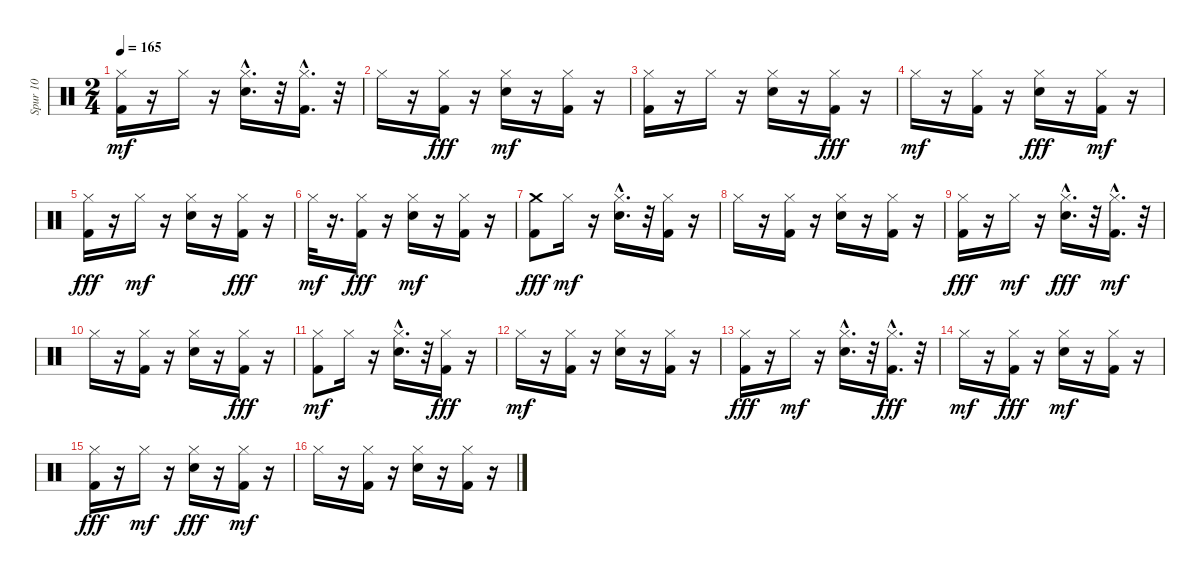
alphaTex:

\track ("Spur 10" "Spur 10") {instrument percussion}
\staff {score}
\articulation defaults
\ts (2 4)
\tempo 165
\clef neutral
\ks c
("Kick (hit) 2" "Hi-Hat (closed)").16{dy mf} r.16 "Hi-Hat (closed)".16 r.16 ("Electric Snare (hit)"{hac} "Hi-Hat (closed)").16{d} r.32 ("Kick (hit) 2"{hac} "Hi-Hat (closed)").16{d} r.32 |
"Hi-Hat (closed)".16 r.16 ("Hi-Hat (closed)" "Kick (hit) 2").16{dy fff} r.16 ("Electric Snare (hit)" "Hi-Hat (closed)").16{dy mf} r.16 ("Kick (hit) 2" "Hi-Hat (closed)").16 r.16 |
("Kick (hit) 2" "Hi-Hat (closed)").16 r.16 "Hi-Hat (closed)".16 r.16 ("Electric Snare (hit)" "Hi-Hat (closed)").16 r.16 ("Hi-Hat (closed)" "Kick (hit) 2").16{dy fff} r.16 |
"Hi-Hat (closed)".16{dy mf} r.16 ("Kick (hit) 2" "Hi-Hat (closed)").16 r.16 ("Hi-Hat (closed)" "Electric Snare (hit)").16{dy fff} r.16 ("Kick (hit) 2" "Hi-Hat (closed)").16{dy mf} r.16 |
("Hi-Hat (closed)" "Kick (hit) 2").16{dy fff} r.16 "Hi-Hat (closed)".16{dy mf} r.16 ("Electric Snare (hit)" "Hi-Hat (closed)").16 r.16 ("Hi-Hat (closed)" "Kick (hit) 2").16{dy fff} r.16 |
"Hi-Hat (closed)".32{dy mf} r.16{d} ("Hi-Hat (closed)" "Kick (hit) 2").16{dy fff} r.16 ("Electric Snare (hit)" "Hi-Hat (closed)").16{dy mf} r.16 ("Kick (hit) 2" "Hi-Hat (closed)").16 r.16 |
("Crash medium (hit)" "Kick (hit) 2").8{dy fff} "Hi-Hat (closed)".16{dy mf} r.16 ("Electric Snare (hit)"{hac} "Hi-Hat (closed)").16{d} r.32 ("Kick (hit) 2" "Hi-Hat (closed)").16 r.16 |
"Hi-Hat (closed)".16 r.16 ("Kick (hit) 2" "Hi-Hat (closed)").16 r.16 ("Electric Snare (hit)" "Hi-Hat (closed)").16 r.16 ("Kick (hit) 2" "Hi-Hat (closed)").16 r.16 |
("Hi-Hat (closed)" "Kick (hit) 2").16{dy fff} r.16 "Hi-Hat (closed)".16{dy mf} r.16 ("Hi-Hat (closed)" "Electric Snare (hit)"{hac}).16{d dy fff} r.32 ("Kick (hit) 2"{hac} "Hi-Hat (closed)").16{d dy mf} r.32 |
"Hi-Hat (closed)".16 r.16 ("Kick (hit) 2" "Hi-Hat (closed)").16 r.16 ("Electric Snare (hit)" "Hi-Hat (closed)").16 r.16 ("Hi-Hat (closed)" "Kick (hit) 2").16{dy fff} r.16 |
("Kick (hit) 2" "Hi-Hat (closed)").8{dy mf} "Hi-Hat (closed)".16 r.16 ("Electric Snare (hit)"{hac} "Hi-Hat (closed)").16{d} r.32 ("Hi-Hat (closed)" "Kick (hit) 2").16{dy fff} r.16 |
"Hi-Hat (closed)".16{dy mf} r.16 ("Kick (hit) 2" "Hi-Hat (closed)").16 r.16 ("Electric Snare (hit)" "Hi-Hat (closed)").16 r.16 ("Kick (hit) 2" "Hi-Hat (closed)").16 r.16 |
("Hi-Hat (closed)" "Kick (hit) 2").16{dy fff} r.16 "Hi-Hat (closed)".16{dy mf} r.16 ("Electric Snare (hit)"{hac} "Hi-Hat (closed)").16{d} r.32 ("Hi-Hat (closed)" "Kick (hit) 2"{hac}).16{d dy fff} r.32 |
"Hi-Hat (closed)".16{dy mf} r.16 ("Hi-Hat (closed)" "Kick (hit) 2").16{dy fff} r.16 ("Electric Snare (hit)" "Hi-Hat (closed)").16{dy mf} r.16 ("Kick (hit) 2" "Hi-Hat (closed)").16 r.16 |
("Hi-Hat (closed)" "Kick (hit) 2").16{dy fff} r.16 "Hi-Hat (closed)".16{dy mf} r.16 ("Hi-Hat (closed)" "Electric Snare (hit)").16{dy fff} r.16 ("Kick (hit) 2" "Hi-Hat (closed)").16{dy mf} r.16 |
"Hi-Hat (closed)".16 r.16 ("Kick (hit) 2" "Hi-Hat (closed)").16 r.16 ("Electric Snare (hit)" "Hi-Hat (closed)").16 r.16 ("Kick (hit) 2" "Hi-Hat (closed)").16 r.16
